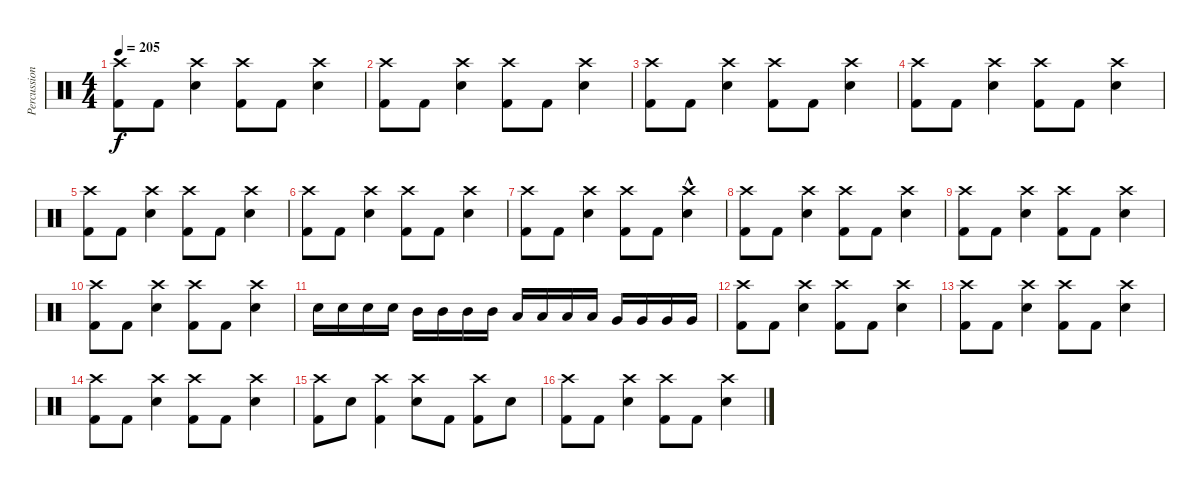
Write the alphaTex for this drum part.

\track ("Percussions" "Percussion") {instrument percussion}
\staff {score}
\articulation defaults
\ts (4 4)
\tempo 205
\clef neutral
\ks c
("Crash high (hit)" "Kick (hit) 2").8{dy f} "Kick (hit) 2".8 ("Crash high (hit)" "Snare (hit) 2").4 ("Crash high (hit)" "Kick (hit) 2").8 "Kick (hit) 2".8 ("Crash high (hit)" "Snare (hit) 2").4 |
("Crash high (hit)" "Kick (hit) 2").8 "Kick (hit) 2".8 ("Crash high (hit)" "Snare (hit) 2").4 ("Crash high (hit)" "Kick (hit) 2").8 "Kick (hit) 2".8 ("Crash high (hit)" "Snare (hit) 2").4 |
("Crash high (hit)" "Kick (hit) 2").8 "Kick (hit) 2".8 ("Crash high (hit)" "Snare (hit) 2").4 ("Crash high (hit)" "Kick (hit) 2").8 "Kick (hit) 2".8 ("Crash high (hit)" "Snare (hit) 2").4 |
("Crash high (hit)" "Kick (hit) 2").8 "Kick (hit) 2".8 ("Crash high (hit)" "Snare (hit) 2").4 ("Crash high (hit)" "Kick (hit) 2").8 "Kick (hit) 2".8 ("Crash high (hit)" "Snare (hit) 2").4 |
("Crash high (hit)" "Kick (hit) 2").8 "Kick (hit) 2".8 ("Crash high (hit)" "Snare (hit) 2").4 ("Crash high (hit)" "Kick (hit) 2").8 "Kick (hit) 2".8 ("Crash high (hit)" "Snare (hit) 2").4 |
("Crash high (hit)" "Kick (hit) 2").8 "Kick (hit) 2".8 ("Crash high (hit)" "Snare (hit) 2").4 ("Crash high (hit)" "Kick (hit) 2").8 "Kick (hit) 2".8 ("Crash high (hit)" "Snare (hit) 2").4 |
("Crash high (hit)" "Kick (hit) 2").8 "Kick (hit) 2".8 ("Crash high (hit)" "Snare (hit) 2").4 ("Crash high (hit)" "Kick (hit) 2").8 "Kick (hit) 2".8 ("Crash high (hit)"{hac} "Snare (hit) 2").4 |
("Crash high (hit)" "Kick (hit) 2").8 "Kick (hit) 2".8 ("Crash high (hit)" "Snare (hit) 2").4 ("Crash high (hit)" "Kick (hit) 2").8 "Kick (hit) 2".8 ("Crash high (hit)" "Snare (hit) 2").4 |
("Crash high (hit)" "Kick (hit) 2").8 "Kick (hit) 2".8 ("Crash high (hit)" "Snare (hit) 2").4 ("Crash high (hit)" "Kick (hit) 2").8 "Kick (hit) 2".8 ("Crash high (hit)" "Snare (hit) 2").4 |
("Crash high (hit)" "Kick (hit) 2").8 "Kick (hit) 2".8 ("Crash high (hit)" "Snare (hit) 2").4 ("Crash high (hit)" "Kick (hit) 2").8 "Kick (hit) 2".8 ("Crash high (hit)" "Snare (hit) 2").4 |
"Snare (hit) 2".16 "Snare (hit) 2".16 "Snare (hit) 2".16 "Snare (hit) 2".16 "Mid Tom (hit)".16 "Mid Tom (hit)".16 "Mid Tom (hit)".16 "Mid Tom (hit)".16 "Low Tom (hit)".16 "Low Tom (hit)".16 "Low Tom (hit)".16 "Low Tom (hit)".16 "Very Low Tom (hit)".16 "Very Low Tom (hit)".16 "Very Low Tom (hit)".16 "Very Low Tom (hit)".16 |
("Crash high (hit)" "Kick (hit) 2").8 "Kick (hit) 2".8 ("Crash high (hit)" "Snare (hit) 2").4 ("Crash high (hit)" "Kick (hit) 2").8 "Kick (hit) 2".8 ("Crash high (hit)" "Snare (hit) 2").4 |
("Crash high (hit)" "Kick (hit) 2").8 "Kick (hit) 2".8 ("Crash high (hit)" "Snare (hit) 2").4 ("Crash high (hit)" "Kick (hit) 2").8 "Kick (hit) 2".8 ("Crash high (hit)" "Snare (hit) 2").4 |
("Crash high (hit)" "Kick (hit) 2").8 "Kick (hit) 2".8 ("Crash high (hit)" "Snare (hit) 2").4 ("Crash high (hit)" "Kick (hit) 2").8 "Kick (hit) 2".8 ("Crash high (hit)" "Snare (hit) 2").4 |
("Crash high (hit)" "Kick (hit) 2").8 "Snare (hit) 2".8 ("Crash high (hit)" "Kick (hit) 2").4 ("Crash high (hit)" "Snare (hit) 2").8 "Kick (hit) 2".8 ("Crash high (hit)" "Kick (hit) 2").8 "Snare (hit) 2".8 |
("Crash high (hit)" "Kick (hit) 2").8 "Kick (hit) 2".8 ("Crash high (hit)" "Snare (hit) 2").4 ("Crash high (hit)" "Kick (hit) 2").8 "Kick (hit) 2".8 ("Crash high (hit)" "Snare (hit) 2").4
